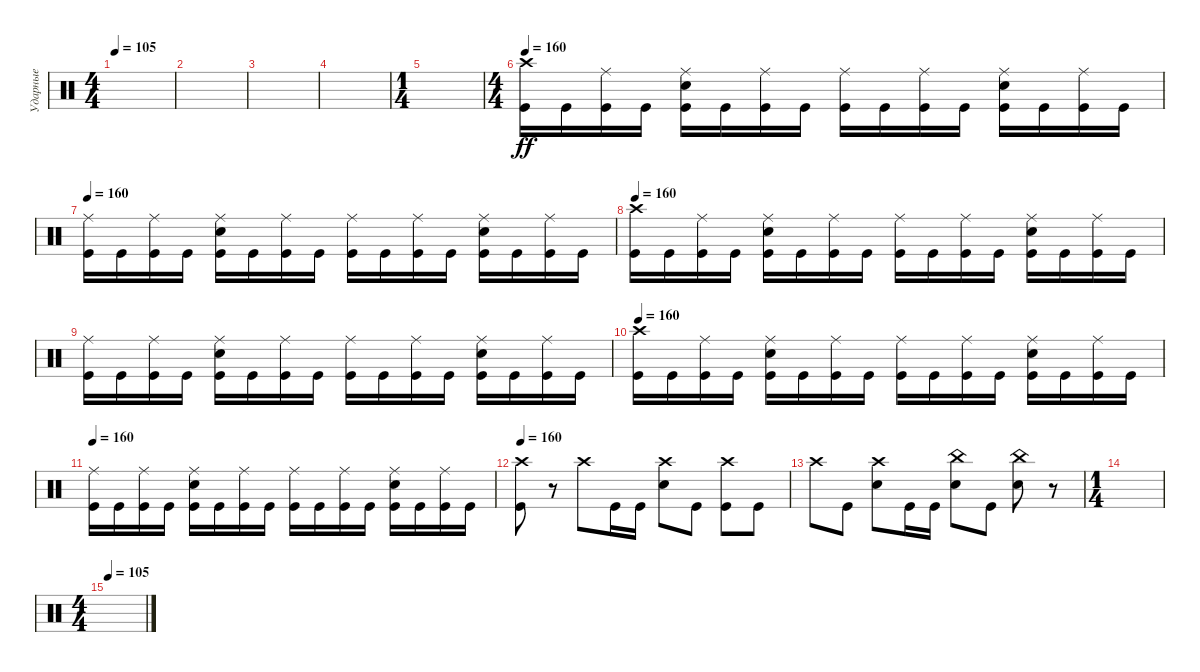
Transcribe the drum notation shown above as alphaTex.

\track ("Ударные" "Ударные") {instrument percussion}
\staff {score}
\articulation defaults
\ts (4 4)
\tempo 105
\clef neutral
\ks c
|
|
|
|
\ts (1 4)
|
\ts (4 4)
\tempo 160
("Crash high (hit)" "Kick (hit)").16{dy ff} "Kick (hit)".16 ("Ride (middle)" "Kick (hit)").16 "Kick (hit)".16 ("Snare (hit) 2" "Ride (middle)" "Kick (hit)").16 "Kick (hit)".16 ("Ride (middle)" "Kick (hit)").16 "Kick (hit)".16 ("Ride (middle)" "Kick (hit)").16 "Kick (hit)".16 ("Ride (middle)" "Kick (hit)").16 "Kick (hit)".16 ("Snare (hit) 2" "Ride (middle)" "Kick (hit)").16 "Kick (hit)".16 ("Ride (middle)" "Kick (hit)").16 "Kick (hit)".16 |
\tempo 160
("Ride (middle)" "Kick (hit)").16 "Kick (hit)".16 ("Ride (middle)" "Kick (hit)").16 "Kick (hit)".16 ("Snare (hit) 2" "Ride (middle)" "Kick (hit)").16 "Kick (hit)".16 ("Ride (middle)" "Kick (hit)").16 "Kick (hit)".16 ("Ride (middle)" "Kick (hit)").16 "Kick (hit)".16 ("Ride (middle)" "Kick (hit)").16 "Kick (hit)".16 ("Snare (hit) 2" "Ride (middle)" "Kick (hit)").16 "Kick (hit)".16 ("Ride (middle)" "Kick (hit)").16 "Kick (hit)".16 |
\tempo 160
("Crash high (hit)" "Kick (hit)").16 "Kick (hit)".16 ("Ride (middle)" "Kick (hit)").16 "Kick (hit)".16 ("Snare (hit) 2" "Ride (middle)" "Kick (hit)").16 "Kick (hit)".16 ("Ride (middle)" "Kick (hit)").16 "Kick (hit)".16 ("Ride (middle)" "Kick (hit)").16 "Kick (hit)".16 ("Ride (middle)" "Kick (hit)").16 "Kick (hit)".16 ("Snare (hit) 2" "Ride (middle)" "Kick (hit)").16 "Kick (hit)".16 ("Ride (middle)" "Kick (hit)").16 "Kick (hit)".16 |
("Ride (middle)" "Kick (hit)").16 "Kick (hit)".16 ("Ride (middle)" "Kick (hit)").16 "Kick (hit)".16 ("Snare (hit) 2" "Ride (middle)" "Kick (hit)").16 "Kick (hit)".16 ("Ride (middle)" "Kick (hit)").16 "Kick (hit)".16 ("Ride (middle)" "Kick (hit)").16 "Kick (hit)".16 ("Ride (middle)" "Kick (hit)").16 "Kick (hit)".16 ("Snare (hit) 2" "Ride (middle)" "Kick (hit)").16 "Kick (hit)".16 ("Ride (middle)" "Kick (hit)").16 "Kick (hit)".16 |
\tempo 160
("Crash high (hit)" "Kick (hit)").16 "Kick (hit)".16 ("Ride (middle)" "Kick (hit)").16 "Kick (hit)".16 ("Snare (hit) 2" "Ride (middle)" "Kick (hit)").16 "Kick (hit)".16 ("Ride (middle)" "Kick (hit)").16 "Kick (hit)".16 ("Ride (middle)" "Kick (hit)").16 "Kick (hit)".16 ("Ride (middle)" "Kick (hit)").16 "Kick (hit)".16 ("Snare (hit) 2" "Ride (middle)" "Kick (hit)").16 "Kick (hit)".16 ("Ride (middle)" "Kick (hit)").16 "Kick (hit)".16 |
\tempo 160
("Ride (middle)" "Kick (hit)").16 "Kick (hit)".16 ("Ride (middle)" "Kick (hit)").16 "Kick (hit)".16 ("Snare (hit) 2" "Ride (middle)" "Kick (hit)").16 "Kick (hit)".16 ("Ride (middle)" "Kick (hit)").16 "Kick (hit)".16 ("Ride (middle)" "Kick (hit)").16 "Kick (hit)".16 ("Ride (middle)" "Kick (hit)").16 "Kick (hit)".16 ("Snare (hit) 2" "Ride (middle)" "Kick (hit)").16 "Kick (hit)".16 ("Ride (middle)" "Kick (hit)").16 "Kick (hit)".16 |
\tempo 160
("Crash high (hit)" "Kick (hit)").8 r.8 "Crash high (hit)".8 "Kick (hit)".16 "Kick (hit)".16 ("Crash high (hit)" "Snare (hit) 2").8 "Kick (hit)".8 ("Crash high (hit)" "Kick (hit)").8 "Kick (hit)".8 |
"Crash high (hit)".8 "Kick (hit)".8 ("Crash high (hit)" "Snare (hit) 2").8 "Kick (hit)".16 "Kick (hit)".16 ("China (hit)" "Snare (hit) 2").8 "Kick (hit)".8 ("Snare (hit) 2" "China (hit)").8 r.8 |
\ts (1 4)
|
\ts (4 4)
\tempo 105
